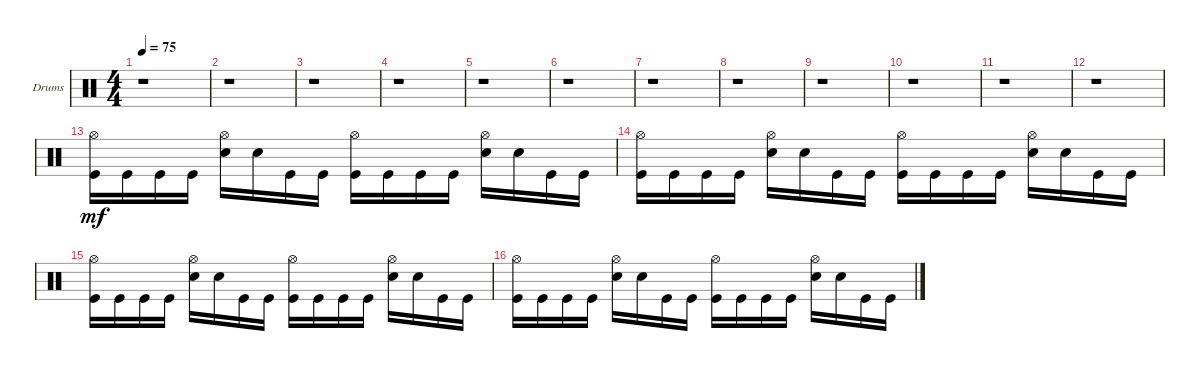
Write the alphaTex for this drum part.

\bracketExtendMode groupsimilarinstruments
\firstSystemTrackNameOrientation horizontal
\otherSystemsTrackNameOrientation horizontal
\track ("" "Drums") {instrument percussion}
\staff {score}
\articulation defaults
\ts (4 4)
\tempo 75
\clef neutral
\ks c
r.1{dy mf} |
r.1 |
r.1 |
r.1 |
r.1 |
r.1 |
r.1 |
r.1 |
r.1 |
r.1 |
r.1 |
r.1 |
("Kick (hit)" "Hi-Hat (open)").16 "Kick (hit)".16 "Kick (hit)".16 "Kick (hit)".16 ("Snare (hit) 2" "Hi-Hat (open)").16 "Snare (hit) 2".16 "Kick (hit)".16 "Kick (hit)".16 ("Kick (hit)" "Hi-Hat (open)").16 "Kick (hit)".16 "Kick (hit)".16 "Kick (hit)".16 ("Snare (hit) 2" "Hi-Hat (open)").16 "Snare (hit) 2".16 "Kick (hit)".16 "Kick (hit)".16 |
("Kick (hit)" "Hi-Hat (open)").16 "Kick (hit)".16 "Kick (hit)".16 "Kick (hit)".16 ("Snare (hit) 2" "Hi-Hat (open)").16 "Snare (hit) 2".16 "Kick (hit)".16 "Kick (hit)".16 ("Kick (hit)" "Hi-Hat (open)").16 "Kick (hit)".16 "Kick (hit)".16 "Kick (hit)".16 ("Snare (hit) 2" "Hi-Hat (open)").16 "Snare (hit) 2".16 "Kick (hit)".16 "Kick (hit)".16 |
("Kick (hit)" "Hi-Hat (open)").16 "Kick (hit)".16 "Kick (hit)".16 "Kick (hit)".16 ("Snare (hit) 2" "Hi-Hat (open)").16 "Snare (hit) 2".16 "Kick (hit)".16 "Kick (hit)".16 ("Kick (hit)" "Hi-Hat (open)").16 "Kick (hit)".16 "Kick (hit)".16 "Kick (hit)".16 ("Snare (hit) 2" "Hi-Hat (open)").16 "Snare (hit) 2".16 "Kick (hit)".16 "Kick (hit)".16 |
("Kick (hit)" "Hi-Hat (open)").16 "Kick (hit)".16 "Kick (hit)".16 "Kick (hit)".16 ("Snare (hit) 2" "Hi-Hat (open)").16 "Snare (hit) 2".16 "Kick (hit)".16 "Kick (hit)".16 ("Kick (hit)" "Hi-Hat (open)").16 "Kick (hit)".16 "Kick (hit)".16 "Kick (hit)".16 ("Snare (hit) 2" "Hi-Hat (open)").16 "Snare (hit) 2".16 "Kick (hit)".16 "Kick (hit)".16
